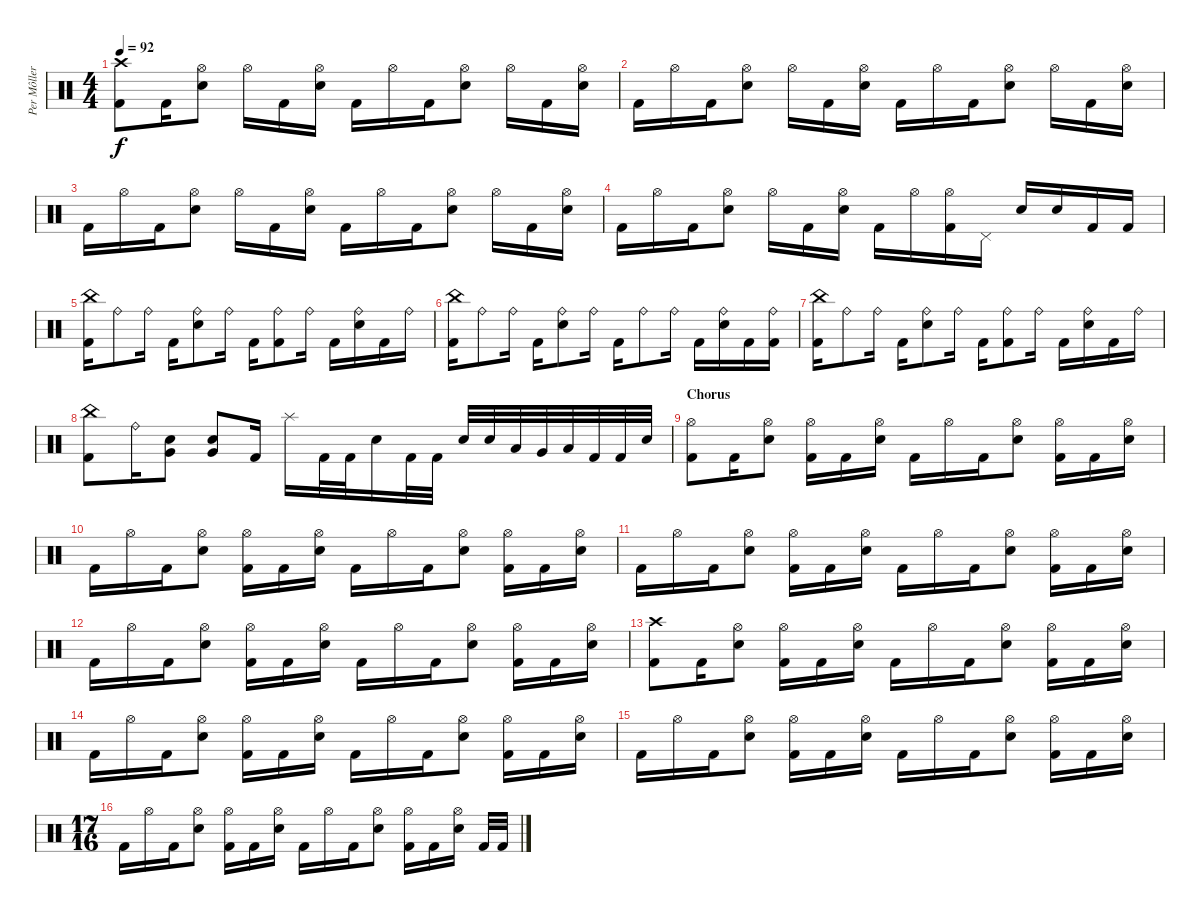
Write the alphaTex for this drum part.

\track ("Per Môller Jensen" "Per Môller") {instrument percussion}
\staff {score}
\articulation defaults
\ts (4 4)
\tempo 92
\clef neutral
\ks c
("Kick (hit) 2" "Crash high (hit)").8{dy f} "Kick (hit) 2".16 ("Electric Snare (hit)" "Hi-Hat (open)").8 "Hi-Hat (open)".16 "Kick (hit) 2".16 ("Electric Snare (hit)" "Hi-Hat (open)").16 "Kick (hit) 2".16 "Hi-Hat (open)".16 "Kick (hit) 2".16 ("Electric Snare (hit)" "Hi-Hat (open)").8 "Hi-Hat (open)".16 "Kick (hit) 2".16 ("Electric Snare (hit)" "Hi-Hat (open)").16 |
"Kick (hit) 2".16 "Hi-Hat (open)".16 "Kick (hit) 2".16 ("Electric Snare (hit)" "Hi-Hat (open)").8 "Hi-Hat (open)".16 "Kick (hit) 2".16 ("Electric Snare (hit)" "Hi-Hat (open)").16 "Kick (hit) 2".16 "Hi-Hat (open)".16 "Kick (hit) 2".16 ("Electric Snare (hit)" "Hi-Hat (open)").8 "Hi-Hat (open)".16 "Kick (hit) 2".16 ("Electric Snare (hit)" "Hi-Hat (open)").16 |
"Kick (hit) 2".16 "Hi-Hat (open)".16 "Kick (hit) 2".16 ("Electric Snare (hit)" "Hi-Hat (open)").8 "Hi-Hat (open)".16 "Kick (hit) 2".16 ("Electric Snare (hit)" "Hi-Hat (open)").16 "Kick (hit) 2".16 "Hi-Hat (open)".16 "Kick (hit) 2".16 ("Electric Snare (hit)" "Hi-Hat (open)").8 "Hi-Hat (open)".16 "Kick (hit) 2".16 ("Electric Snare (hit)" "Hi-Hat (open)").16 |
"Kick (hit) 2".16 "Hi-Hat (open)".16 "Kick (hit) 2".16 ("Electric Snare (hit)" "Hi-Hat (open)").8 "Hi-Hat (open)".16 "Kick (hit) 2".16 ("Electric Snare (hit)" "Hi-Hat (open)").16 "Kick (hit) 2".16 "Hi-Hat (open)".16 ("Kick (hit) 2" "Hi-Hat (open)").16 "Pedal Hi-Hat (hit)".16 "Electric Snare (hit)".16 "Electric Snare (hit)".16 "Kick (hit) 2".16 "Kick (hit) 2".16 |
("Kick (hit) 2" "China (hit)").16 "Ride (bell)".8 "Ride (bell)".16 "Kick (hit) 2".16 ("Electric Snare (hit)" "Ride (bell)").8 "Ride (bell)".16 "Kick (hit) 2".16 ("Kick (hit) 2" "Ride (bell)").8 "Ride (bell)".16 "Kick (hit) 2".16 ("Electric Snare (hit)" "Ride (bell)").16 "Kick (hit) 2".16 "Ride (bell)".16 |
("Kick (hit) 2" "China (hit)").16 "Ride (bell)".8 "Ride (bell)".16 "Kick (hit) 2".16 ("Electric Snare (hit)" "Ride (bell)").8 "Ride (bell)".16 "Kick (hit) 2".16 "Ride (bell)".8 "Ride (bell)".16 "Kick (hit) 2".16 ("Electric Snare (hit)" "Ride (bell)").16 "Kick (hit) 2".16 ("Kick (hit) 2" "Ride (bell)").16 |
("Kick (hit) 2" "China (hit)").16 "Ride (bell)".8 "Ride (bell)".16 "Kick (hit) 2".16 ("Electric Snare (hit)" "Ride (bell)").8 "Ride (bell)".16 "Kick (hit) 2".16 ("Kick (hit) 2" "Ride (bell)").8 "Ride (bell)".16 "Kick (hit) 2".16 ("Electric Snare (hit)" "Ride (bell)").16 "Kick (hit) 2".16 "Ride (bell)".16 |
("Kick (hit) 2" "China (hit)").8 "Ride (bell)".16 ("Electric Snare (hit)" "Very Low Tom (hit)").8 ("Electric Snare (hit)" "Very Low Tom (hit)").8 "Kick (hit) 2".16 "Splash (hit)".16 "Kick (hit) 2".32 "Kick (hit) 2".32 "Electric Snare (hit)".16 "Kick (hit) 2".32 "Kick (hit) 2".32 "Electric Snare (hit)".32 "Electric Snare (hit)".32 "Low Tom (hit)".32 "Very Low Tom (hit)".32 "Low Floor Tom (hit)".32 "Kick (hit) 2".32 "Kick (hit) 2".32 "Electric Snare (hit)".32 |
\section ("" "Chorus")
("Kick (hit) 2" "Hi-Hat (open)").8 "Kick (hit) 2".16 ("Electric Snare (hit)" "Hi-Hat (open)").8 ("Kick (hit) 2" "Hi-Hat (open)").16 "Kick (hit) 2".16 ("Electric Snare (hit)" "Hi-Hat (open)").16 "Kick (hit) 2".16 "Hi-Hat (open)".16 "Kick (hit) 2".16 ("Electric Snare (hit)" "Hi-Hat (open)").8 ("Kick (hit) 2" "Hi-Hat (open)").16 "Kick (hit) 2".16 ("Electric Snare (hit)" "Hi-Hat (open)").16 |
"Kick (hit) 2".16 "Hi-Hat (open)".16 "Kick (hit) 2".16 ("Electric Snare (hit)" "Hi-Hat (open)").8 ("Kick (hit) 2" "Hi-Hat (open)").16 "Kick (hit) 2".16 ("Electric Snare (hit)" "Hi-Hat (open)").16 "Kick (hit) 2".16 "Hi-Hat (open)".16 "Kick (hit) 2".16 ("Electric Snare (hit)" "Hi-Hat (open)").8 ("Kick (hit) 2" "Hi-Hat (open)").16 "Kick (hit) 2".16 ("Electric Snare (hit)" "Hi-Hat (open)").16 |
"Kick (hit) 2".16 "Hi-Hat (open)".16 "Kick (hit) 2".16 ("Electric Snare (hit)" "Hi-Hat (open)").8 ("Kick (hit) 2" "Hi-Hat (open)").16 "Kick (hit) 2".16 ("Electric Snare (hit)" "Hi-Hat (open)").16 "Kick (hit) 2".16 "Hi-Hat (open)".16 "Kick (hit) 2".16 ("Electric Snare (hit)" "Hi-Hat (open)").8 ("Kick (hit) 2" "Hi-Hat (open)").16 "Kick (hit) 2".16 ("Electric Snare (hit)" "Hi-Hat (open)").16 |
"Kick (hit) 2".16 "Hi-Hat (open)".16 "Kick (hit) 2".16 ("Electric Snare (hit)" "Hi-Hat (open)").8 ("Kick (hit) 2" "Hi-Hat (open)").16 "Kick (hit) 2".16 ("Electric Snare (hit)" "Hi-Hat (open)").16 "Kick (hit) 2".16 "Hi-Hat (open)".16 "Kick (hit) 2".16 ("Electric Snare (hit)" "Hi-Hat (open)").8 ("Kick (hit) 2" "Hi-Hat (open)").16 "Kick (hit) 2".16 ("Electric Snare (hit)" "Hi-Hat (open)").16 |
("Kick (hit) 2" "Crash high (hit)").8 "Kick (hit) 2".16 ("Electric Snare (hit)" "Hi-Hat (open)").8 ("Kick (hit) 2" "Hi-Hat (open)").16 "Kick (hit) 2".16 ("Electric Snare (hit)" "Hi-Hat (open)").16 "Kick (hit) 2".16 "Hi-Hat (open)".16 "Kick (hit) 2".16 ("Electric Snare (hit)" "Hi-Hat (open)").8 ("Kick (hit) 2" "Hi-Hat (open)").16 "Kick (hit) 2".16 ("Electric Snare (hit)" "Hi-Hat (open)").16 |
"Kick (hit) 2".16 "Hi-Hat (open)".16 "Kick (hit) 2".16 ("Electric Snare (hit)" "Hi-Hat (open)").8 ("Kick (hit) 2" "Hi-Hat (open)").16 "Kick (hit) 2".16 ("Electric Snare (hit)" "Hi-Hat (open)").16 "Kick (hit) 2".16 "Hi-Hat (open)".16 "Kick (hit) 2".16 ("Electric Snare (hit)" "Hi-Hat (open)").8 ("Kick (hit) 2" "Hi-Hat (open)").16 "Kick (hit) 2".16 ("Electric Snare (hit)" "Hi-Hat (open)").16 |
"Kick (hit) 2".16 "Hi-Hat (open)".16 "Kick (hit) 2".16 ("Electric Snare (hit)" "Hi-Hat (open)").8 ("Kick (hit) 2" "Hi-Hat (open)").16 "Kick (hit) 2".16 ("Electric Snare (hit)" "Hi-Hat (open)").16 "Kick (hit) 2".16 "Hi-Hat (open)".16 "Kick (hit) 2".16 ("Electric Snare (hit)" "Hi-Hat (open)").8 ("Kick (hit) 2" "Hi-Hat (open)").16 "Kick (hit) 2".16 ("Electric Snare (hit)" "Hi-Hat (open)").16 |
\ts (17 16)
"Kick (hit) 2".16 "Hi-Hat (open)".16 "Kick (hit) 2".16 ("Electric Snare (hit)" "Hi-Hat (open)").8 ("Kick (hit) 2" "Hi-Hat (open)").16 "Kick (hit) 2".16 ("Electric Snare (hit)" "Hi-Hat (open)").16 "Kick (hit) 2".16 "Hi-Hat (open)".16 "Kick (hit) 2".16 ("Electric Snare (hit)" "Hi-Hat (open)").8 ("Kick (hit) 2" "Hi-Hat (open)").16 "Kick (hit) 2".16 ("Electric Snare (hit)" "Hi-Hat (open)").16 "Kick (hit) 2".32 "Kick (hit) 2".32
